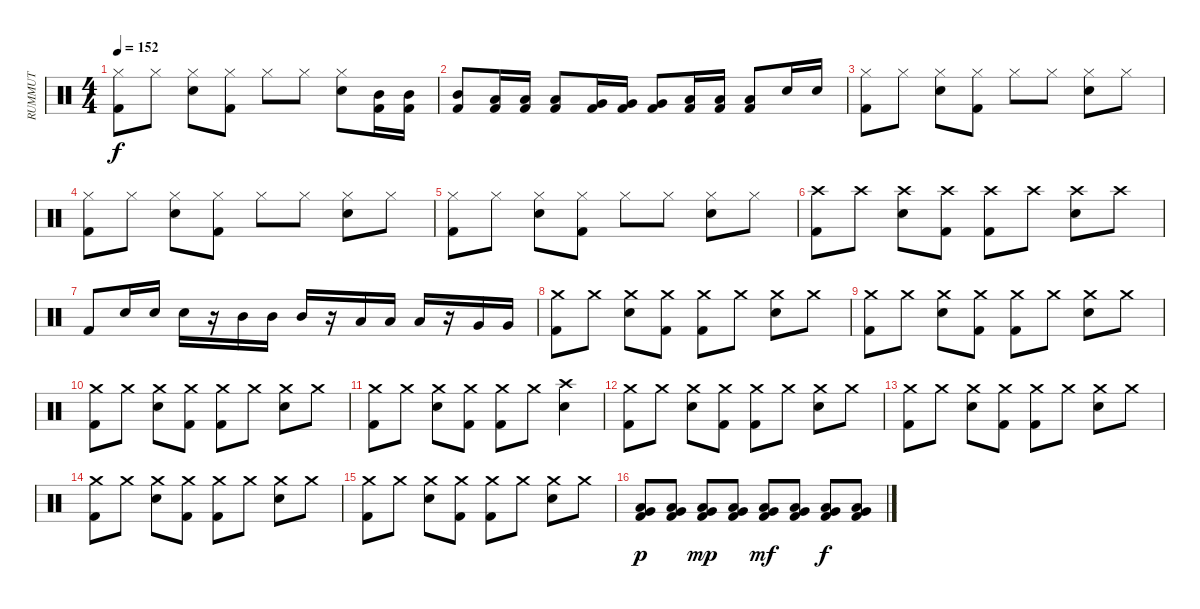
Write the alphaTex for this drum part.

\track ("RUMMUT" "RUMMUT") {instrument percussion}
\staff {score}
\articulation defaults
\ts (4 4)
\tempo 152
\clef neutral
\ks c
("Hi-Hat (closed)" "Kick (hit) 2").8{dy f} "Hi-Hat (closed)".8 ("Hi-Hat (closed)" "Electric Snare (hit)").8 ("Hi-Hat (closed)" "Kick (hit) 2").8 "Hi-Hat (closed)".8 "Hi-Hat (closed)".8 ("Hi-Hat (closed)" "Electric Snare (hit)").8 ("Mid Tom (hit)" "Kick (hit) 2").16 ("Mid Tom (hit)" "Kick (hit) 2").16 |
("Mid Tom (hit)" "Kick (hit) 2").8 ("Low Tom (hit)" "Kick (hit) 2").16 ("Low Tom (hit)" "Kick (hit) 2").16 ("Low Tom (hit)" "Kick (hit) 2").8 ("Very Low Tom (hit)" "Kick (hit) 2").16 ("Very Low Tom (hit)" "Kick (hit) 2").16 ("Very Low Tom (hit)" "Kick (hit) 2").8 ("Low Floor Tom (hit)" "Kick (hit) 2").16 ("Low Floor Tom (hit)" "Kick (hit) 2").16 ("Low Floor Tom (hit)" "Kick (hit) 2").8 "Electric Snare (hit)".16 "Electric Snare (hit)".16 |
("Hi-Hat (closed)" "Kick (hit) 2").8 "Hi-Hat (closed)".8 ("Hi-Hat (closed)" "Electric Snare (hit)").8 ("Hi-Hat (closed)" "Kick (hit) 2").8 "Hi-Hat (closed)".8 "Hi-Hat (closed)".8 ("Hi-Hat (closed)" "Electric Snare (hit)").8 "Hi-Hat (closed)".8 |
("Hi-Hat (closed)" "Kick (hit) 2").8 "Hi-Hat (closed)".8 ("Hi-Hat (closed)" "Electric Snare (hit)").8 ("Hi-Hat (closed)" "Kick (hit) 2").8 "Hi-Hat (closed)".8 "Hi-Hat (closed)".8 ("Hi-Hat (closed)" "Electric Snare (hit)").8 "Hi-Hat (closed)".8 |
("Hi-Hat (closed)" "Kick (hit) 2").8 "Hi-Hat (closed)".8 ("Hi-Hat (closed)" "Electric Snare (hit)").8 ("Hi-Hat (closed)" "Kick (hit) 2").8 "Hi-Hat (closed)".8 "Hi-Hat (closed)".8 ("Hi-Hat (closed)" "Electric Snare (hit)").8 "Hi-Hat (closed)".8 |
("Crash high (hit)" "Kick (hit) 2").8 "Crash high (hit)".8 ("Crash high (hit)" "Electric Snare (hit)").8 ("Crash high (hit)" "Kick (hit) 2").8 ("Crash high (hit)" "Kick (hit) 2").8 "Crash high (hit)".8 ("Crash high (hit)" "Electric Snare (hit)").8 "Crash high (hit)".8 |
"Kick (hit) 2".8 "Electric Snare (hit)".16 "Electric Snare (hit)".16 "Electric Snare (hit)".16 r.16 "Mid Tom (hit)".16 "Mid Tom (hit)".16 "Mid Tom (hit)".16 r.16 "Low Tom (hit)".16 "Low Tom (hit)".16 "Low Tom (hit)".16 r.16 "Very Low Tom (hit)".16 "Very Low Tom (hit)".16 |
("Crash medium (hit)" "Kick (hit) 2").8 "Crash medium (hit)".8 ("Crash medium (hit)" "Electric Snare (hit)").8 ("Crash medium (hit)" "Kick (hit) 2").8 ("Crash medium (hit)" "Kick (hit) 2").8 "Crash medium (hit)".8 ("Crash medium (hit)" "Electric Snare (hit)").8 "Crash medium (hit)".8 |
("Crash medium (hit)" "Kick (hit) 2").8 "Crash medium (hit)".8 ("Crash medium (hit)" "Electric Snare (hit)").8 ("Crash medium (hit)" "Kick (hit) 2").8 ("Crash medium (hit)" "Kick (hit) 2").8 "Crash medium (hit)".8 ("Crash medium (hit)" "Electric Snare (hit)").8 "Crash medium (hit)".8 |
("Crash medium (hit)" "Kick (hit) 2").8 "Crash medium (hit)".8 ("Crash medium (hit)" "Electric Snare (hit)").8 ("Crash medium (hit)" "Kick (hit) 2").8 ("Crash medium (hit)" "Kick (hit) 2").8 "Crash medium (hit)".8 ("Crash medium (hit)" "Electric Snare (hit)").8 "Crash medium (hit)".8 |
("Crash medium (hit)" "Kick (hit) 2").8 "Crash medium (hit)".8 ("Crash medium (hit)" "Electric Snare (hit)").8 ("Crash medium (hit)" "Kick (hit) 2").8 ("Crash medium (hit)" "Kick (hit) 2").8 "Crash medium (hit)".8 ("Crash high (hit)" "Electric Snare (hit)").4 |
("Crash medium (hit)" "Kick (hit) 2").8 "Crash medium (hit)".8 ("Crash medium (hit)" "Electric Snare (hit)").8 ("Crash medium (hit)" "Kick (hit) 2").8 ("Crash medium (hit)" "Kick (hit) 2").8 "Crash medium (hit)".8 ("Crash medium (hit)" "Electric Snare (hit)").8 "Crash medium (hit)".8 |
("Crash medium (hit)" "Kick (hit) 2").8 "Crash medium (hit)".8 ("Crash medium (hit)" "Electric Snare (hit)").8 ("Crash medium (hit)" "Kick (hit) 2").8 ("Crash medium (hit)" "Kick (hit) 2").8 "Crash medium (hit)".8 ("Crash medium (hit)" "Electric Snare (hit)").8 "Crash medium (hit)".8 |
("Crash medium (hit)" "Kick (hit) 2").8 "Crash medium (hit)".8 ("Crash medium (hit)" "Electric Snare (hit)").8 ("Crash medium (hit)" "Kick (hit) 2").8 ("Crash medium (hit)" "Kick (hit) 2").8 "Crash medium (hit)".8 ("Crash medium (hit)" "Electric Snare (hit)").8 "Crash medium (hit)".8 |
("Crash medium (hit)" "Kick (hit) 2").8 "Crash medium (hit)".8 ("Crash medium (hit)" "Electric Snare (hit)").8 ("Crash medium (hit)" "Kick (hit) 2").8 ("Crash medium (hit)" "Kick (hit) 2").8 "Crash medium (hit)".8 ("Crash medium (hit)" "Electric Snare (hit)").8 "Crash medium (hit)".8 |
("Low Tom (hit)" "Very Low Tom (hit)" "Kick (hit) 2").8{dy p} ("Low Tom (hit)" "Very Low Tom (hit)" "Kick (hit) 2").8 ("Low Tom (hit)" "Very Low Tom (hit)" "Kick (hit) 2").8{dy mp} ("Low Tom (hit)" "Very Low Tom (hit)" "Kick (hit) 2").8 ("Low Tom (hit)" "Very Low Tom (hit)" "Kick (hit) 2").8{dy mf} ("Low Tom (hit)" "Very Low Tom (hit)" "Kick (hit) 2").8 ("Low Tom (hit)" "Very Low Tom (hit)" "Kick (hit) 2").8{dy f} ("Low Tom (hit)" "Very Low Tom (hit)" "Kick (hit) 2").8
